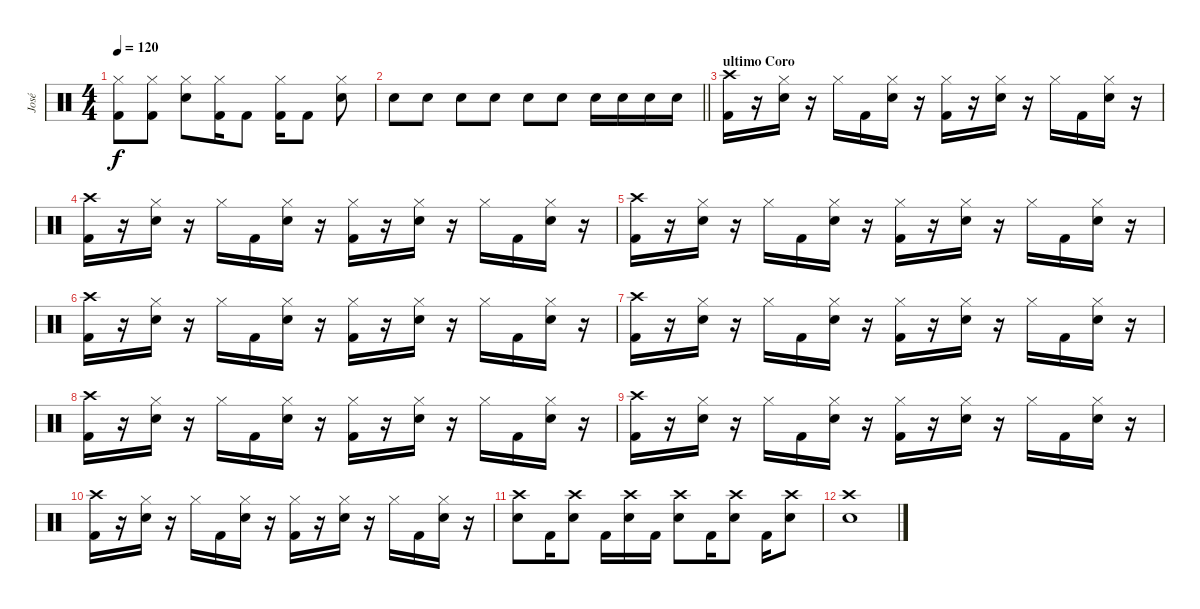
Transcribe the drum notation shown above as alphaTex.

\track ("José" "José") {instrument percussion}
\staff {score}
\articulation defaults
\ts (4 4)
\tempo 120
\clef neutral
\ks c
("Hi-Hat (closed)" "Kick (hit) 2").8{dy f} ("Hi-Hat (closed)" "Kick (hit) 2").8 ("Hi-Hat (closed)" "Electric Snare (hit)").8 ("Hi-Hat (closed)" "Kick (hit) 2").16 "Kick (hit) 2".8 ("Hi-Hat (closed)" "Kick (hit) 2").16 "Kick (hit) 2".8 ("Hi-Hat (closed)" "Electric Snare (hit)").8 |
\barLineRight lightlight "Electric Snare (hit)".8 "Electric Snare (hit)".8 "Electric Snare (hit)".8 "Electric Snare (hit)".8 "Electric Snare (hit)".8 "Electric Snare (hit)".8 "Electric Snare (hit)".16 "Electric Snare (hit)".16 "Electric Snare (hit)".16 "Electric Snare (hit)".16
|
\section ("" "ultimo Coro")
("Crash high (hit)" "Kick (hit) 2").16 r.16 ("Hi-Hat (closed)" "Electric Snare (hit)").16 r.16 "Hi-Hat (closed)".16 "Kick (hit) 2".16 ("Hi-Hat (closed)" "Electric Snare (hit)").16 r.16 ("Hi-Hat (closed)" "Kick (hit) 2").16 r.16 ("Hi-Hat (closed)" "Electric Snare (hit)").16 r.16 "Hi-Hat (closed)".16 "Kick (hit) 2".16 ("Hi-Hat (closed)" "Electric Snare (hit)").16 r.16 |
("Crash high (hit)" "Kick (hit) 2").16 r.16 ("Hi-Hat (closed)" "Electric Snare (hit)").16 r.16 "Hi-Hat (closed)".16 "Kick (hit) 2".16 ("Hi-Hat (closed)" "Electric Snare (hit)").16 r.16 ("Hi-Hat (closed)" "Kick (hit) 2").16 r.16 ("Hi-Hat (closed)" "Electric Snare (hit)").16 r.16 "Hi-Hat (closed)".16 "Kick (hit) 2".16 ("Hi-Hat (closed)" "Electric Snare (hit)").16 r.16 |
("Crash high (hit)" "Kick (hit) 2").16 r.16 ("Hi-Hat (closed)" "Electric Snare (hit)").16 r.16 "Hi-Hat (closed)".16 "Kick (hit) 2".16 ("Hi-Hat (closed)" "Electric Snare (hit)").16 r.16 ("Hi-Hat (closed)" "Kick (hit) 2").16 r.16 ("Hi-Hat (closed)" "Electric Snare (hit)").16 r.16 "Hi-Hat (closed)".16 "Kick (hit) 2".16 ("Hi-Hat (closed)" "Electric Snare (hit)").16 r.16 |
("Crash high (hit)" "Kick (hit) 2").16 r.16 ("Hi-Hat (closed)" "Electric Snare (hit)").16 r.16 "Hi-Hat (closed)".16 "Kick (hit) 2".16 ("Hi-Hat (closed)" "Electric Snare (hit)").16 r.16 ("Hi-Hat (closed)" "Kick (hit) 2").16 r.16 ("Hi-Hat (closed)" "Electric Snare (hit)").16 r.16 "Hi-Hat (closed)".16 "Kick (hit) 2".16 ("Hi-Hat (closed)" "Electric Snare (hit)").16 r.16 |
("Crash high (hit)" "Kick (hit) 2").16 r.16 ("Hi-Hat (closed)" "Electric Snare (hit)").16 r.16 "Hi-Hat (closed)".16 "Kick (hit) 2".16 ("Hi-Hat (closed)" "Electric Snare (hit)").16 r.16 ("Hi-Hat (closed)" "Kick (hit) 2").16 r.16 ("Hi-Hat (closed)" "Electric Snare (hit)").16 r.16 "Hi-Hat (closed)".16 "Kick (hit) 2".16 ("Hi-Hat (closed)" "Electric Snare (hit)").16 r.16 |
("Crash high (hit)" "Kick (hit) 2").16 r.16 ("Hi-Hat (closed)" "Electric Snare (hit)").16 r.16 "Hi-Hat (closed)".16 "Kick (hit) 2".16 ("Hi-Hat (closed)" "Electric Snare (hit)").16 r.16 ("Hi-Hat (closed)" "Kick (hit) 2").16 r.16 ("Hi-Hat (closed)" "Electric Snare (hit)").16 r.16 "Hi-Hat (closed)".16 "Kick (hit) 2".16 ("Hi-Hat (closed)" "Electric Snare (hit)").16 r.16 |
("Crash high (hit)" "Kick (hit) 2").16 r.16 ("Hi-Hat (closed)" "Electric Snare (hit)").16 r.16 "Hi-Hat (closed)".16 "Kick (hit) 2".16 ("Hi-Hat (closed)" "Electric Snare (hit)").16 r.16 ("Hi-Hat (closed)" "Kick (hit) 2").16 r.16 ("Hi-Hat (closed)" "Electric Snare (hit)").16 r.16 "Hi-Hat (closed)".16 "Kick (hit) 2".16 ("Hi-Hat (closed)" "Electric Snare (hit)").16 r.16 |
("Crash high (hit)" "Kick (hit) 2").16 r.16 ("Hi-Hat (closed)" "Electric Snare (hit)").16 r.16 "Hi-Hat (closed)".16 "Kick (hit) 2".16 ("Hi-Hat (closed)" "Electric Snare (hit)").16 r.16 ("Hi-Hat (closed)" "Kick (hit) 2").16 r.16 ("Hi-Hat (closed)" "Electric Snare (hit)").16 r.16 "Hi-Hat (closed)".16 "Kick (hit) 2".16 ("Hi-Hat (closed)" "Electric Snare (hit)").16 r.16 |
("Crash high (hit)" "Electric Snare (hit)").8 "Kick (hit) 2".16 ("Crash high (hit)" "Electric Snare (hit)").8 "Kick (hit) 2".16 ("Crash high (hit)" "Electric Snare (hit)").16 "Kick (hit) 2".16 ("Crash high (hit)" "Electric Snare (hit)").8 "Kick (hit) 2".16 ("Crash high (hit)" "Electric Snare (hit)").8 "Kick (hit) 2".16 ("Crash high (hit)" "Electric Snare (hit)").8 |
("Crash high (hit)" "Electric Snare (hit)").1
